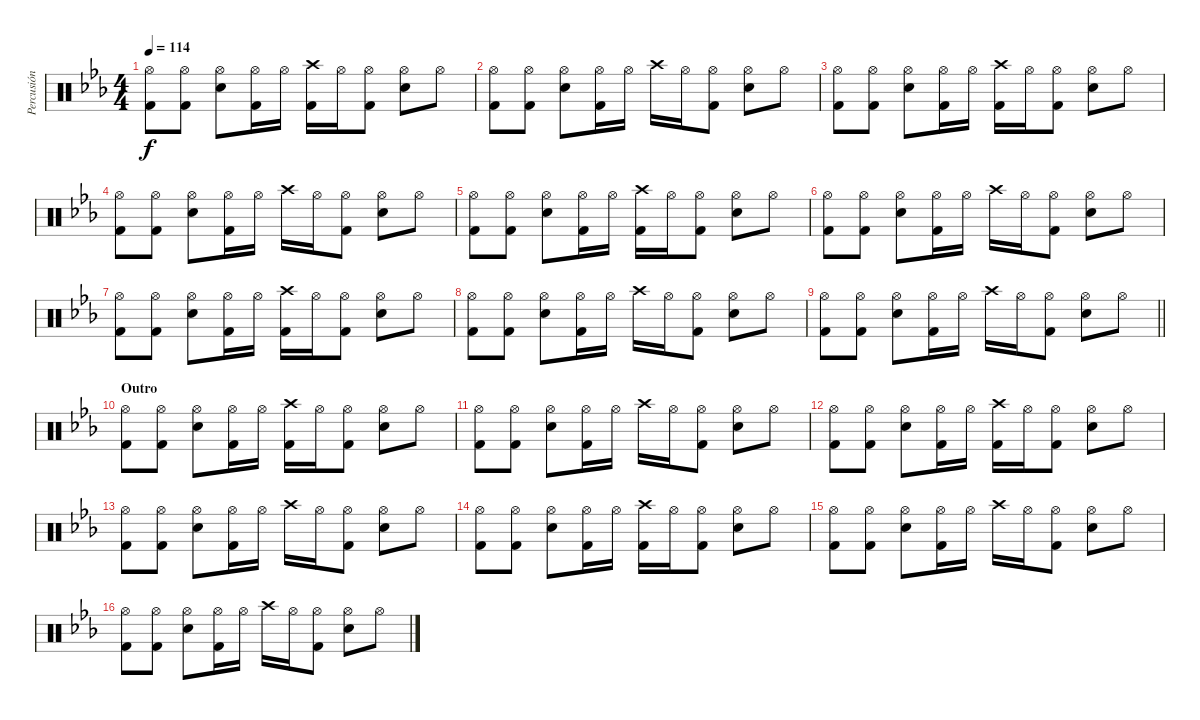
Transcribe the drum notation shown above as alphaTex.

\track ("Percusión" "Percusión") {instrument percussion}
\staff {score}
\articulation defaults
\ts (4 4)
\tempo 114
\clef neutral
\ks eb
("Hi-Hat (open)" "Kick (hit) 2").8{dy f} ("Hi-Hat (open)" "Kick (hit) 2").8 ("Hi-Hat (open)" "Snare (hit) 2").8 ("Hi-Hat (open)" "Kick (hit) 2").16 "Hi-Hat (open)".16 ("Crash high (hit)" "Kick (hit) 2").16 "Hi-Hat (open)".16 ("Hi-Hat (open)" "Kick (hit) 2").8 ("Hi-Hat (open)" "Snare (hit) 2").8 "Hi-Hat (open)".8 |
("Hi-Hat (open)" "Kick (hit) 2").8 ("Hi-Hat (open)" "Kick (hit) 2").8 ("Hi-Hat (open)" "Snare (hit) 2").8 ("Hi-Hat (open)" "Kick (hit) 2").16 "Hi-Hat (open)".16 "Crash high (hit)".16 "Hi-Hat (open)".16 ("Hi-Hat (open)" "Kick (hit) 2").8 ("Hi-Hat (open)" "Snare (hit) 2").8 "Hi-Hat (open)".8 |
("Hi-Hat (open)" "Kick (hit) 2").8 ("Hi-Hat (open)" "Kick (hit) 2").8 ("Hi-Hat (open)" "Snare (hit) 2").8 ("Hi-Hat (open)" "Kick (hit) 2").16 "Hi-Hat (open)".16 ("Crash high (hit)" "Kick (hit) 2").16 "Hi-Hat (open)".16 ("Hi-Hat (open)" "Kick (hit) 2").8 ("Hi-Hat (open)" "Snare (hit) 2").8 "Hi-Hat (open)".8 |
("Hi-Hat (open)" "Kick (hit) 2").8 ("Hi-Hat (open)" "Kick (hit) 2").8 ("Hi-Hat (open)" "Snare (hit) 2").8 ("Hi-Hat (open)" "Kick (hit) 2").16 "Hi-Hat (open)".16 "Crash high (hit)".16 "Hi-Hat (open)".16 ("Hi-Hat (open)" "Kick (hit) 2").8 ("Hi-Hat (open)" "Snare (hit) 2").8 "Hi-Hat (open)".8 |
("Hi-Hat (open)" "Kick (hit) 2").8 ("Hi-Hat (open)" "Kick (hit) 2").8 ("Hi-Hat (open)" "Snare (hit) 2").8 ("Hi-Hat (open)" "Kick (hit) 2").16 "Hi-Hat (open)".16 ("Crash high (hit)" "Kick (hit) 2").16 "Hi-Hat (open)".16 ("Hi-Hat (open)" "Kick (hit) 2").8 ("Hi-Hat (open)" "Snare (hit) 2").8 "Hi-Hat (open)".8 |
("Hi-Hat (open)" "Kick (hit) 2").8 ("Hi-Hat (open)" "Kick (hit) 2").8 ("Hi-Hat (open)" "Snare (hit) 2").8 ("Hi-Hat (open)" "Kick (hit) 2").16 "Hi-Hat (open)".16 "Crash high (hit)".16 "Hi-Hat (open)".16 ("Hi-Hat (open)" "Kick (hit) 2").8 ("Hi-Hat (open)" "Snare (hit) 2").8 "Hi-Hat (open)".8 |
("Hi-Hat (open)" "Kick (hit) 2").8 ("Hi-Hat (open)" "Kick (hit) 2").8 ("Hi-Hat (open)" "Snare (hit) 2").8 ("Hi-Hat (open)" "Kick (hit) 2").16 "Hi-Hat (open)".16 ("Crash high (hit)" "Kick (hit) 2").16 "Hi-Hat (open)".16 ("Hi-Hat (open)" "Kick (hit) 2").8 ("Hi-Hat (open)" "Snare (hit) 2").8 "Hi-Hat (open)".8 |
("Hi-Hat (open)" "Kick (hit) 2").8 ("Hi-Hat (open)" "Kick (hit) 2").8 ("Hi-Hat (open)" "Snare (hit) 2").8 ("Hi-Hat (open)" "Kick (hit) 2").16 "Hi-Hat (open)".16 "Crash high (hit)".16 "Hi-Hat (open)".16 ("Hi-Hat (open)" "Kick (hit) 2").8 ("Hi-Hat (open)" "Snare (hit) 2").8 "Hi-Hat (open)".8 |
\barLineRight lightlight
("Hi-Hat (open)" "Kick (hit) 2").8 ("Hi-Hat (open)" "Kick (hit) 2").8 ("Hi-Hat (open)" "Snare (hit) 2").8 ("Hi-Hat (open)" "Kick (hit) 2").16 "Hi-Hat (open)".16 "Crash high (hit)".16 "Hi-Hat (open)".16 ("Hi-Hat (open)" "Kick (hit) 2").8 ("Hi-Hat (open)" "Snare (hit) 2").8 "Hi-Hat (open)".8 |
\section ("" "Outro")
("Hi-Hat (open)" "Kick (hit) 2").8 ("Hi-Hat (open)" "Kick (hit) 2").8 ("Hi-Hat (open)" "Snare (hit) 2").8 ("Hi-Hat (open)" "Kick (hit) 2").16 "Hi-Hat (open)".16 ("Crash high (hit)" "Kick (hit) 2").16 "Hi-Hat (open)".16 ("Hi-Hat (open)" "Kick (hit) 2").8 ("Hi-Hat (open)" "Snare (hit) 2").8 "Hi-Hat (open)".8 |
("Hi-Hat (open)" "Kick (hit) 2").8 ("Hi-Hat (open)" "Kick (hit) 2").8 ("Hi-Hat (open)" "Snare (hit) 2").8 ("Hi-Hat (open)" "Kick (hit) 2").16 "Hi-Hat (open)".16 "Crash high (hit)".16 "Hi-Hat (open)".16 ("Hi-Hat (open)" "Kick (hit) 2").8 ("Hi-Hat (open)" "Snare (hit) 2").8 "Hi-Hat (open)".8 |
("Hi-Hat (open)" "Kick (hit) 2").8 ("Hi-Hat (open)" "Kick (hit) 2").8 ("Hi-Hat (open)" "Snare (hit) 2").8 ("Hi-Hat (open)" "Kick (hit) 2").16 "Hi-Hat (open)".16 ("Crash high (hit)" "Kick (hit) 2").16 "Hi-Hat (open)".16 ("Hi-Hat (open)" "Kick (hit) 2").8 ("Hi-Hat (open)" "Snare (hit) 2").8 "Hi-Hat (open)".8 |
("Hi-Hat (open)" "Kick (hit) 2").8 ("Hi-Hat (open)" "Kick (hit) 2").8 ("Hi-Hat (open)" "Snare (hit) 2").8 ("Hi-Hat (open)" "Kick (hit) 2").16 "Hi-Hat (open)".16 "Crash high (hit)".16 "Hi-Hat (open)".16 ("Hi-Hat (open)" "Kick (hit) 2").8 ("Hi-Hat (open)" "Snare (hit) 2").8 "Hi-Hat (open)".8 |
("Hi-Hat (open)" "Kick (hit) 2").8 ("Hi-Hat (open)" "Kick (hit) 2").8 ("Hi-Hat (open)" "Snare (hit) 2").8 ("Hi-Hat (open)" "Kick (hit) 2").16 "Hi-Hat (open)".16 ("Crash high (hit)" "Kick (hit) 2").16 "Hi-Hat (open)".16 ("Hi-Hat (open)" "Kick (hit) 2").8 ("Hi-Hat (open)" "Snare (hit) 2").8 "Hi-Hat (open)".8 |
("Hi-Hat (open)" "Kick (hit) 2").8 ("Hi-Hat (open)" "Kick (hit) 2").8 ("Hi-Hat (open)" "Snare (hit) 2").8 ("Hi-Hat (open)" "Kick (hit) 2").16 "Hi-Hat (open)".16 "Crash high (hit)".16 "Hi-Hat (open)".16 ("Hi-Hat (open)" "Kick (hit) 2").8 ("Hi-Hat (open)" "Snare (hit) 2").8 "Hi-Hat (open)".8 |
("Hi-Hat (open)" "Kick (hit) 2").8 ("Hi-Hat (open)" "Kick (hit) 2").8 ("Hi-Hat (open)" "Snare (hit) 2").8 ("Hi-Hat (open)" "Kick (hit) 2").16 "Hi-Hat (open)".16 "Crash high (hit)".16 "Hi-Hat (open)".16 ("Hi-Hat (open)" "Kick (hit) 2").8 ("Hi-Hat (open)" "Snare (hit) 2").8 "Hi-Hat (open)".8
